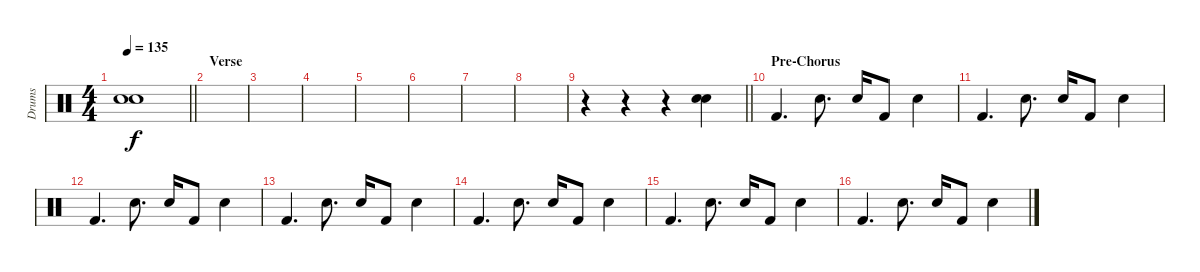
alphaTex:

\track ("Drums" "Drums") {instrument percussion}
\staff {score}
\articulation defaults
\ts (4 4)
\tempo 135
\clef neutral
\barLineRight lightlight
\ks c
("Electric Snare (hit)"{t} "Electric Snare (hit)"{t}).1{dy f} |
\section ("" "Verse")
|
|
|
|
|
|
|
\barLineRight lightlight
r.4 r.4 r.4 ("Electric Snare (hit)" "Electric Snare (hit)").4 |
\section ("" "Pre-Chorus")
"Kick (hit) 2".4{d} "Electric Snare (hit)".8{d} "Electric Snare (hit)".16 "Kick (hit) 2".8 "Electric Snare (hit)".4 |
"Kick (hit) 2".4{d} "Electric Snare (hit)".8{d} "Electric Snare (hit)".16 "Kick (hit) 2".8 "Electric Snare (hit)".4 |
"Kick (hit) 2".4{d} "Electric Snare (hit)".8{d} "Electric Snare (hit)".16 "Kick (hit) 2".8 "Electric Snare (hit)".4 |
"Kick (hit) 2".4{d} "Electric Snare (hit)".8{d} "Electric Snare (hit)".16 "Kick (hit) 2".8 "Electric Snare (hit)".4 |
"Kick (hit) 2".4{d} "Electric Snare (hit)".8{d} "Electric Snare (hit)".16 "Kick (hit) 2".8 "Electric Snare (hit)".4 |
"Kick (hit) 2".4{d} "Electric Snare (hit)".8{d} "Electric Snare (hit)".16 "Kick (hit) 2".8 "Electric Snare (hit)".4 |
"Kick (hit) 2".4{d} "Electric Snare (hit)".8{d} "Electric Snare (hit)".16 "Kick (hit) 2".8 "Electric Snare (hit)".4
